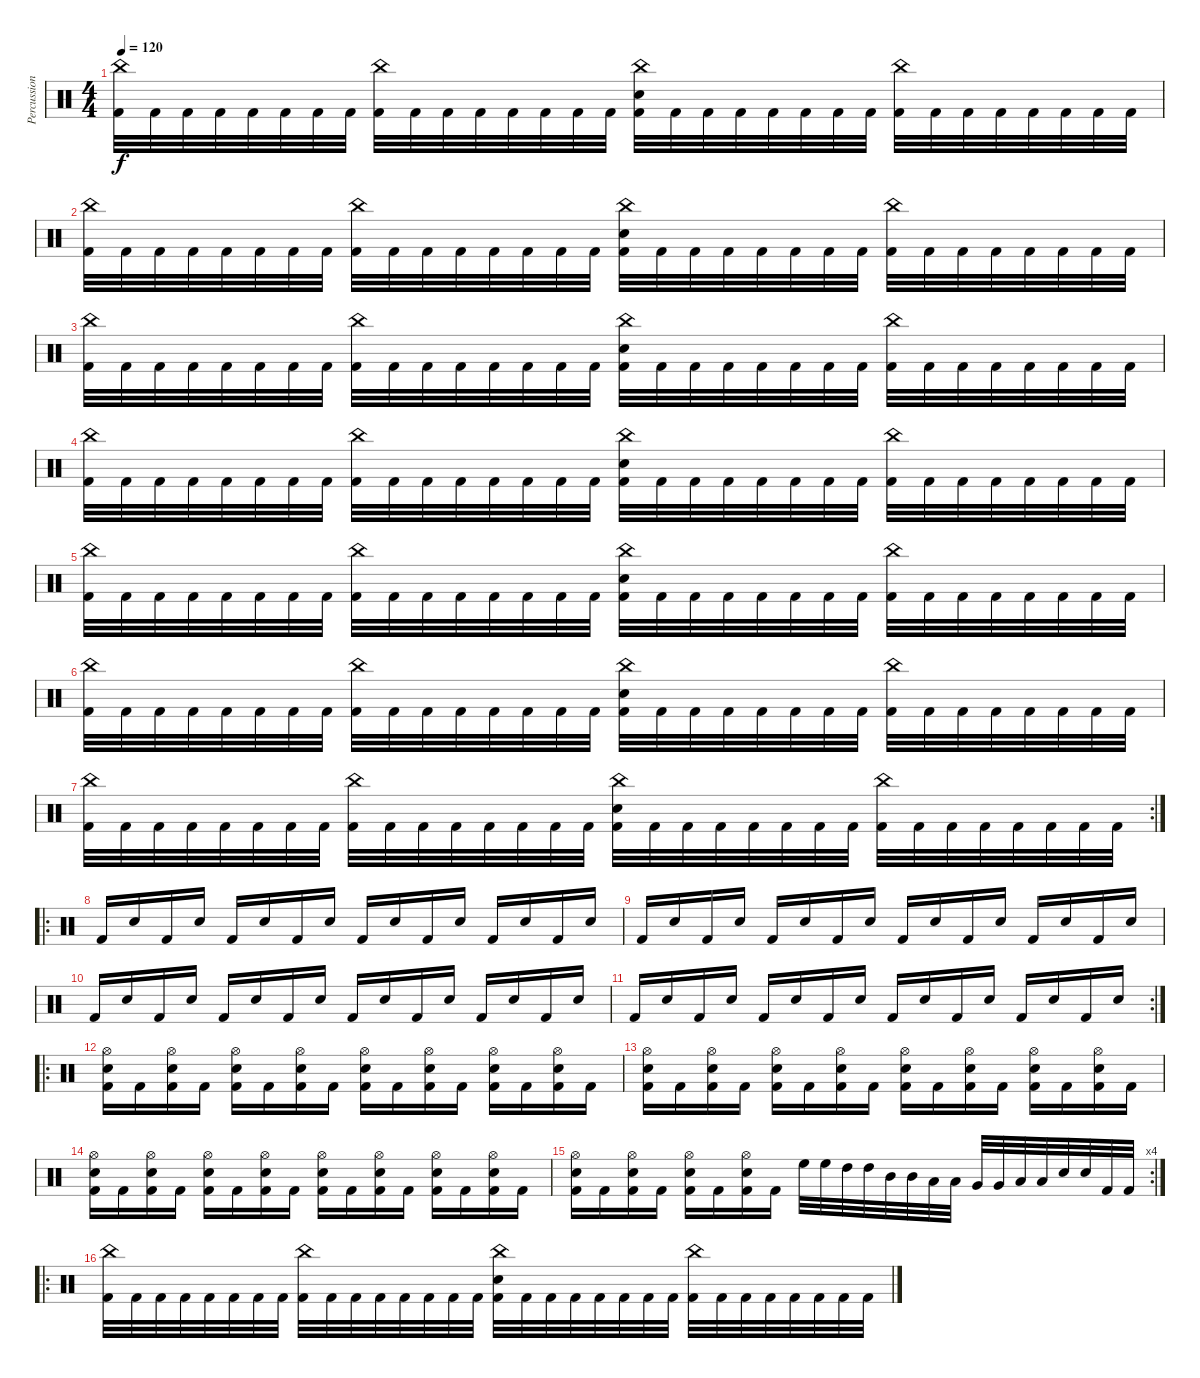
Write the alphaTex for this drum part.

\track ("Percussions" "Percussion") {instrument percussion}
\staff {score}
\articulation defaults
\ts (4 4)
\tempo 120
\clef neutral
\ks c
("China (hit)" "Kick (hit) 2").32{dy f} "Kick (hit) 2".32 "Kick (hit) 2".32 "Kick (hit) 2".32 "Kick (hit) 2".32 "Kick (hit) 2".32 "Kick (hit) 2".32 "Kick (hit) 2".32 ("China (hit)" "Kick (hit) 2").32 "Kick (hit) 2".32 "Kick (hit) 2".32 "Kick (hit) 2".32 "Kick (hit) 2".32 "Kick (hit) 2".32 "Kick (hit) 2".32 "Kick (hit) 2".32 ("China (hit)" "Electric Snare (hit)" "Kick (hit) 2").32 "Kick (hit) 2".32 "Kick (hit) 2".32 "Kick (hit) 2".32 "Kick (hit) 2".32 "Kick (hit) 2".32 "Kick (hit) 2".32 "Kick (hit) 2".32 ("China (hit)" "Kick (hit) 2").32 "Kick (hit) 2".32 "Kick (hit) 2".32 "Kick (hit) 2".32 "Kick (hit) 2".32 "Kick (hit) 2".32 "Kick (hit) 2".32 "Kick (hit) 2".32 |
("China (hit)" "Kick (hit) 2").32 "Kick (hit) 2".32 "Kick (hit) 2".32 "Kick (hit) 2".32 "Kick (hit) 2".32 "Kick (hit) 2".32 "Kick (hit) 2".32 "Kick (hit) 2".32 ("China (hit)" "Kick (hit) 2").32 "Kick (hit) 2".32 "Kick (hit) 2".32 "Kick (hit) 2".32 "Kick (hit) 2".32 "Kick (hit) 2".32 "Kick (hit) 2".32 "Kick (hit) 2".32 ("China (hit)" "Electric Snare (hit)" "Kick (hit) 2").32 "Kick (hit) 2".32 "Kick (hit) 2".32 "Kick (hit) 2".32 "Kick (hit) 2".32 "Kick (hit) 2".32 "Kick (hit) 2".32 "Kick (hit) 2".32 ("China (hit)" "Kick (hit) 2").32 "Kick (hit) 2".32 "Kick (hit) 2".32 "Kick (hit) 2".32 "Kick (hit) 2".32 "Kick (hit) 2".32 "Kick (hit) 2".32 "Kick (hit) 2".32 |
("China (hit)" "Kick (hit) 2").32 "Kick (hit) 2".32 "Kick (hit) 2".32 "Kick (hit) 2".32 "Kick (hit) 2".32 "Kick (hit) 2".32 "Kick (hit) 2".32 "Kick (hit) 2".32 ("China (hit)" "Kick (hit) 2").32 "Kick (hit) 2".32 "Kick (hit) 2".32 "Kick (hit) 2".32 "Kick (hit) 2".32 "Kick (hit) 2".32 "Kick (hit) 2".32 "Kick (hit) 2".32 ("China (hit)" "Electric Snare (hit)" "Kick (hit) 2").32 "Kick (hit) 2".32 "Kick (hit) 2".32 "Kick (hit) 2".32 "Kick (hit) 2".32 "Kick (hit) 2".32 "Kick (hit) 2".32 "Kick (hit) 2".32 ("China (hit)" "Kick (hit) 2").32 "Kick (hit) 2".32 "Kick (hit) 2".32 "Kick (hit) 2".32 "Kick (hit) 2".32 "Kick (hit) 2".32 "Kick (hit) 2".32 "Kick (hit) 2".32 |
("China (hit)" "Kick (hit) 2").32 "Kick (hit) 2".32 "Kick (hit) 2".32 "Kick (hit) 2".32 "Kick (hit) 2".32 "Kick (hit) 2".32 "Kick (hit) 2".32 "Kick (hit) 2".32 ("China (hit)" "Kick (hit) 2").32 "Kick (hit) 2".32 "Kick (hit) 2".32 "Kick (hit) 2".32 "Kick (hit) 2".32 "Kick (hit) 2".32 "Kick (hit) 2".32 "Kick (hit) 2".32 ("China (hit)" "Electric Snare (hit)" "Kick (hit) 2").32 "Kick (hit) 2".32 "Kick (hit) 2".32 "Kick (hit) 2".32 "Kick (hit) 2".32 "Kick (hit) 2".32 "Kick (hit) 2".32 "Kick (hit) 2".32 ("China (hit)" "Kick (hit) 2").32 "Kick (hit) 2".32 "Kick (hit) 2".32 "Kick (hit) 2".32 "Kick (hit) 2".32 "Kick (hit) 2".32 "Kick (hit) 2".32 "Kick (hit) 2".32 |
("China (hit)" "Kick (hit) 2").32 "Kick (hit) 2".32 "Kick (hit) 2".32 "Kick (hit) 2".32 "Kick (hit) 2".32 "Kick (hit) 2".32 "Kick (hit) 2".32 "Kick (hit) 2".32 ("China (hit)" "Kick (hit) 2").32 "Kick (hit) 2".32 "Kick (hit) 2".32 "Kick (hit) 2".32 "Kick (hit) 2".32 "Kick (hit) 2".32 "Kick (hit) 2".32 "Kick (hit) 2".32 ("China (hit)" "Electric Snare (hit)" "Kick (hit) 2").32 "Kick (hit) 2".32 "Kick (hit) 2".32 "Kick (hit) 2".32 "Kick (hit) 2".32 "Kick (hit) 2".32 "Kick (hit) 2".32 "Kick (hit) 2".32 ("China (hit)" "Kick (hit) 2").32 "Kick (hit) 2".32 "Kick (hit) 2".32 "Kick (hit) 2".32 "Kick (hit) 2".32 "Kick (hit) 2".32 "Kick (hit) 2".32 "Kick (hit) 2".32 |
("China (hit)" "Kick (hit) 2").32 "Kick (hit) 2".32 "Kick (hit) 2".32 "Kick (hit) 2".32 "Kick (hit) 2".32 "Kick (hit) 2".32 "Kick (hit) 2".32 "Kick (hit) 2".32 ("China (hit)" "Kick (hit) 2").32 "Kick (hit) 2".32 "Kick (hit) 2".32 "Kick (hit) 2".32 "Kick (hit) 2".32 "Kick (hit) 2".32 "Kick (hit) 2".32 "Kick (hit) 2".32 ("China (hit)" "Electric Snare (hit)" "Kick (hit) 2").32 "Kick (hit) 2".32 "Kick (hit) 2".32 "Kick (hit) 2".32 "Kick (hit) 2".32 "Kick (hit) 2".32 "Kick (hit) 2".32 "Kick (hit) 2".32 ("China (hit)" "Kick (hit) 2").32 "Kick (hit) 2".32 "Kick (hit) 2".32 "Kick (hit) 2".32 "Kick (hit) 2".32 "Kick (hit) 2".32 "Kick (hit) 2".32 "Kick (hit) 2".32 |
\rc 2
("China (hit)" "Kick (hit) 2").32 "Kick (hit) 2".32 "Kick (hit) 2".32 "Kick (hit) 2".32 "Kick (hit) 2".32 "Kick (hit) 2".32 "Kick (hit) 2".32 "Kick (hit) 2".32 ("China (hit)" "Kick (hit) 2").32 "Kick (hit) 2".32 "Kick (hit) 2".32 "Kick (hit) 2".32 "Kick (hit) 2".32 "Kick (hit) 2".32 "Kick (hit) 2".32 "Kick (hit) 2".32 ("China (hit)" "Electric Snare (hit)" "Kick (hit) 2").32 "Kick (hit) 2".32 "Kick (hit) 2".32 "Kick (hit) 2".32 "Kick (hit) 2".32 "Kick (hit) 2".32 "Kick (hit) 2".32 "Kick (hit) 2".32 ("China (hit)" "Kick (hit) 2").32 "Kick (hit) 2".32 "Kick (hit) 2".32 "Kick (hit) 2".32 "Kick (hit) 2".32 "Kick (hit) 2".32 "Kick (hit) 2".32 "Kick (hit) 2".32 |
\ro "Kick (hit) 2".16 "Electric Snare (hit)".16 "Kick (hit) 2".16 "Electric Snare (hit)".16 "Kick (hit) 2".16 "Electric Snare (hit)".16 "Kick (hit) 2".16 "Electric Snare (hit)".16 "Kick (hit) 2".16 "Electric Snare (hit)".16 "Kick (hit) 2".16 "Electric Snare (hit)".16 "Kick (hit) 2".16 "Electric Snare (hit)".16 "Kick (hit) 2".16 "Electric Snare (hit)".16
|
"Kick (hit) 2".16 "Electric Snare (hit)".16 "Kick (hit) 2".16 "Electric Snare (hit)".16 "Kick (hit) 2".16 "Electric Snare (hit)".16 "Kick (hit) 2".16 "Electric Snare (hit)".16 "Kick (hit) 2".16 "Electric Snare (hit)".16 "Kick (hit) 2".16 "Electric Snare (hit)".16 "Kick (hit) 2".16 "Electric Snare (hit)".16 "Kick (hit) 2".16 "Electric Snare (hit)".16 |
"Kick (hit) 2".16 "Electric Snare (hit)".16 "Kick (hit) 2".16 "Electric Snare (hit)".16 "Kick (hit) 2".16 "Electric Snare (hit)".16 "Kick (hit) 2".16 "Electric Snare (hit)".16 "Kick (hit) 2".16 "Electric Snare (hit)".16 "Kick (hit) 2".16 "Electric Snare (hit)".16 "Kick (hit) 2".16 "Electric Snare (hit)".16 "Kick (hit) 2".16 "Electric Snare (hit)".16 |
\rc 2 "Kick (hit) 2".16 "Electric Snare (hit)".16 "Kick (hit) 2".16 "Electric Snare (hit)".16 "Kick (hit) 2".16 "Electric Snare (hit)".16 "Kick (hit) 2".16 "Electric Snare (hit)".16 "Kick (hit) 2".16 "Electric Snare (hit)".16 "Kick (hit) 2".16 "Electric Snare (hit)".16 "Kick (hit) 2".16 "Electric Snare (hit)".16 "Kick (hit) 2".16 "Electric Snare (hit)".16
|
\ro
("Hi-Hat (open)" "Electric Snare (hit)" "Kick (hit) 2").16 "Kick (hit) 2".16 ("Hi-Hat (open)" "Electric Snare (hit)" "Kick (hit) 2").16 "Kick (hit) 2".16 ("Hi-Hat (open)" "Electric Snare (hit)" "Kick (hit) 2").16 "Kick (hit) 2".16 ("Hi-Hat (open)" "Electric Snare (hit)" "Kick (hit) 2").16 "Kick (hit) 2".16 ("Hi-Hat (open)" "Electric Snare (hit)" "Kick (hit) 2").16 "Kick (hit) 2".16 ("Hi-Hat (open)" "Electric Snare (hit)" "Kick (hit) 2").16 "Kick (hit) 2".16 ("Hi-Hat (open)" "Electric Snare (hit)" "Kick (hit) 2").16 "Kick (hit) 2".16 ("Hi-Hat (open)" "Electric Snare (hit)" "Kick (hit) 2").16 "Kick (hit) 2".16 |
("Hi-Hat (open)" "Electric Snare (hit)" "Kick (hit) 2").16 "Kick (hit) 2".16 ("Hi-Hat (open)" "Electric Snare (hit)" "Kick (hit) 2").16 "Kick (hit) 2".16 ("Hi-Hat (open)" "Electric Snare (hit)" "Kick (hit) 2").16 "Kick (hit) 2".16 ("Hi-Hat (open)" "Electric Snare (hit)" "Kick (hit) 2").16 "Kick (hit) 2".16 ("Hi-Hat (open)" "Electric Snare (hit)" "Kick (hit) 2").16 "Kick (hit) 2".16 ("Hi-Hat (open)" "Electric Snare (hit)" "Kick (hit) 2").16 "Kick (hit) 2".16 ("Hi-Hat (open)" "Electric Snare (hit)" "Kick (hit) 2").16 "Kick (hit) 2".16 ("Hi-Hat (open)" "Electric Snare (hit)" "Kick (hit) 2").16 "Kick (hit) 2".16 |
("Hi-Hat (open)" "Electric Snare (hit)" "Kick (hit) 2").16 "Kick (hit) 2".16 ("Hi-Hat (open)" "Electric Snare (hit)" "Kick (hit) 2").16 "Kick (hit) 2".16 ("Hi-Hat (open)" "Electric Snare (hit)" "Kick (hit) 2").16 "Kick (hit) 2".16 ("Hi-Hat (open)" "Electric Snare (hit)" "Kick (hit) 2").16 "Kick (hit) 2".16 ("Hi-Hat (open)" "Electric Snare (hit)" "Kick (hit) 2").16 "Kick (hit) 2".16 ("Hi-Hat (open)" "Electric Snare (hit)" "Kick (hit) 2").16 "Kick (hit) 2".16 ("Hi-Hat (open)" "Electric Snare (hit)" "Kick (hit) 2").16 "Kick (hit) 2".16 ("Hi-Hat (open)" "Electric Snare (hit)" "Kick (hit) 2").16 "Kick (hit) 2".16 |
\rc 4
("Hi-Hat (open)" "Electric Snare (hit)" "Kick (hit) 2").16 "Kick (hit) 2".16 ("Hi-Hat (open)" "Electric Snare (hit)" "Kick (hit) 2").16 "Kick (hit) 2".16 ("Hi-Hat (open)" "Electric Snare (hit)" "Kick (hit) 2").16 "Kick (hit) 2".16 ("Hi-Hat (open)" "Electric Snare (hit)" "Kick (hit) 2").16 "Kick (hit) 2".16 "High Floor Tom (hit)".32 "High Floor Tom (hit)".32 "High Tom (hit)".32 "High Tom (hit)".32 "Mid Tom (hit)".32 "Mid Tom (hit)".32 "Low Tom (hit)".32 "Low Tom (hit)".32 "Very Low Tom (hit)".32 "Very Low Tom (hit)".32 "Low Floor Tom (hit)".32 "Low Floor Tom (hit)".32 "Electric Snare (hit)".32 "Electric Snare (hit)".32 "Kick (hit) 2".32 "Kick (hit) 2".32 |
\ro
("China (hit)" "Kick (hit) 2").32 "Kick (hit) 2".32 "Kick (hit) 2".32 "Kick (hit) 2".32 "Kick (hit) 2".32 "Kick (hit) 2".32 "Kick (hit) 2".32 "Kick (hit) 2".32 ("China (hit)" "Kick (hit) 2").32 "Kick (hit) 2".32 "Kick (hit) 2".32 "Kick (hit) 2".32 "Kick (hit) 2".32 "Kick (hit) 2".32 "Kick (hit) 2".32 "Kick (hit) 2".32 ("China (hit)" "Electric Snare (hit)" "Kick (hit) 2").32 "Kick (hit) 2".32 "Kick (hit) 2".32 "Kick (hit) 2".32 "Kick (hit) 2".32 "Kick (hit) 2".32 "Kick (hit) 2".32 "Kick (hit) 2".32 ("China (hit)" "Kick (hit) 2").32 "Kick (hit) 2".32 "Kick (hit) 2".32 "Kick (hit) 2".32 "Kick (hit) 2".32 "Kick (hit) 2".32 "Kick (hit) 2".32 "Kick (hit) 2".32
